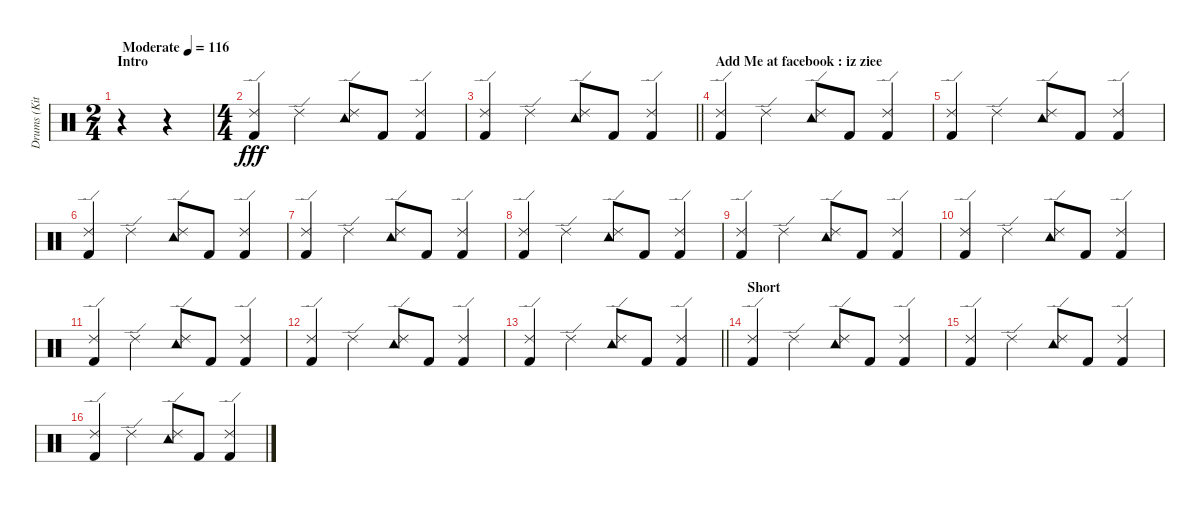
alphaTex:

\track ("Drums (Kit)" "Drums (Kit") {instrument percussion}
\staff {score}
\articulation defaults
\ts (2 4)
\section ("" "Intro")
\tempo (116 "Moderate")
\clef neutral
\ks c
r.4{dy fff} r.4 |
\ts (4 4)
("Ride (edge) 2" "Kick (hit) 2").4 "Ride (edge) 2".4 ("Ride (edge) 2" "Tambourine (hit)").8 "Kick (hit) 2".8 ("Ride (edge) 2" "Kick (hit) 2").4 |
\barLineRight lightlight
("Kick (hit) 2" "Ride (edge) 2").4 "Ride (edge) 2".4 ("Ride (edge) 2" "Tambourine (hit)").8 "Kick (hit) 2".8 ("Ride (edge) 2" "Kick (hit) 2").4 |
\section ("" "Add Me at facebook : iz ziee")
("Ride (edge) 2" "Kick (hit) 2").4 "Ride (edge) 2".4 ("Ride (edge) 2" "Tambourine (hit)").8 "Kick (hit) 2".8 ("Ride (edge) 2" "Kick (hit) 2").4 |
("Kick (hit) 2" "Ride (edge) 2").4 "Ride (edge) 2".4 ("Ride (edge) 2" "Tambourine (hit)").8 "Kick (hit) 2".8 ("Ride (edge) 2" "Kick (hit) 2").4 |
("Ride (edge) 2" "Kick (hit) 2").4 "Ride (edge) 2".4 ("Ride (edge) 2" "Tambourine (hit)").8 "Kick (hit) 2".8 ("Ride (edge) 2" "Kick (hit) 2").4 |
("Kick (hit) 2" "Ride (edge) 2").4 "Ride (edge) 2".4 ("Ride (edge) 2" "Tambourine (hit)").8 "Kick (hit) 2".8 ("Ride (edge) 2" "Kick (hit) 2").4 |
("Ride (edge) 2" "Kick (hit) 2").4 "Ride (edge) 2".4 ("Ride (edge) 2" "Tambourine (hit)").8 "Kick (hit) 2".8 ("Ride (edge) 2" "Kick (hit) 2").4 |
("Kick (hit) 2" "Ride (edge) 2").4 "Ride (edge) 2".4 ("Ride (edge) 2" "Tambourine (hit)").8 "Kick (hit) 2".8 ("Ride (edge) 2" "Kick (hit) 2").4 |
("Ride (edge) 2" "Kick (hit) 2").4 "Ride (edge) 2".4 ("Ride (edge) 2" "Tambourine (hit)").8 "Kick (hit) 2".8 ("Ride (edge) 2" "Kick (hit) 2").4 |
("Kick (hit) 2" "Ride (edge) 2").4 "Ride (edge) 2".4 ("Ride (edge) 2" "Tambourine (hit)").8 "Kick (hit) 2".8 ("Ride (edge) 2" "Kick (hit) 2").4 |
("Ride (edge) 2" "Kick (hit) 2").4 "Ride (edge) 2".4 ("Ride (edge) 2" "Tambourine (hit)").8 "Kick (hit) 2".8 ("Ride (edge) 2" "Kick (hit) 2").4 |
\barLineRight lightlight
("Kick (hit) 2" "Ride (edge) 2").4 "Ride (edge) 2".4 ("Ride (edge) 2" "Tambourine (hit)").8 "Kick (hit) 2".8 ("Ride (edge) 2" "Kick (hit) 2").4 |
\section ("" "Short")
("Ride (edge) 2" "Kick (hit) 2").4 "Ride (edge) 2".4 ("Ride (edge) 2" "Tambourine (hit)").8 "Kick (hit) 2".8 ("Ride (edge) 2" "Kick (hit) 2").4 |
("Kick (hit) 2" "Ride (edge) 2").4 "Ride (edge) 2".4 ("Ride (edge) 2" "Tambourine (hit)").8 "Kick (hit) 2".8 ("Ride (edge) 2" "Kick (hit) 2").4 |
("Ride (edge) 2" "Kick (hit) 2").4 "Ride (edge) 2".4 ("Ride (edge) 2" "Tambourine (hit)").8 "Kick (hit) 2".8 ("Ride (edge) 2" "Kick (hit) 2").4
